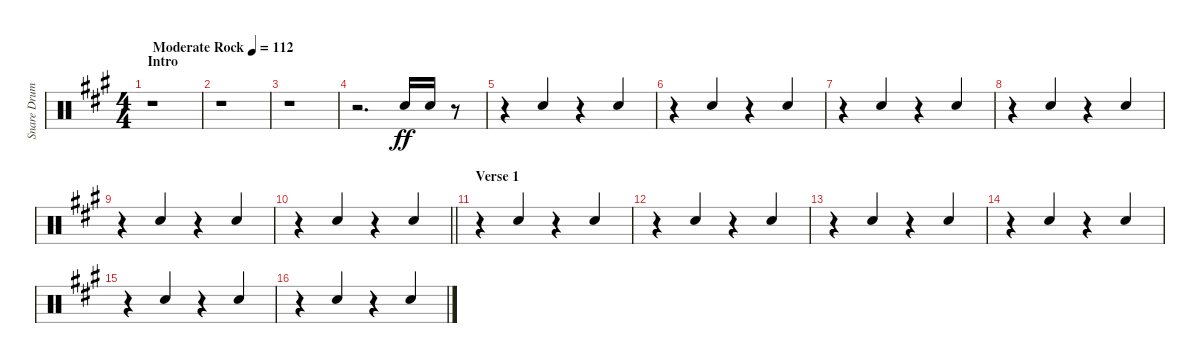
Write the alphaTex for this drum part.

\track ("Snare Drum" "Snare Drum") {instrument percussion}
\staff {score}
\articulation defaults
\ts (4 4)
\section ("" "Intro")
\tempo (112 "Moderate Rock")
\clef neutral
\ks f#minor
r.1{dy ff} |
r.1 |
r.1 |
r.2{d} "Electric Snare (hit)".16{beam Up} "Electric Snare (hit)".16{beam Up} r.8{beam Up} |
r.4 "Electric Snare (hit)".4{beam Up} r.4 "Electric Snare (hit)".4{beam Up} |
r.4 "Electric Snare (hit)".4{beam Up} r.4 "Electric Snare (hit)".4{beam Up} |
r.4 "Electric Snare (hit)".4{beam Up} r.4 "Electric Snare (hit)".4{beam Up} |
r.4 "Electric Snare (hit)".4{beam Up} r.4 "Electric Snare (hit)".4{beam Up} |
r.4 "Electric Snare (hit)".4{beam Up} r.4 "Electric Snare (hit)".4{beam Up} |
\barLineRight lightlight
r.4 "Electric Snare (hit)".4{beam Up} r.4 "Electric Snare (hit)".4{beam Up} |
\section ("" "Verse 1")
r.4 "Electric Snare (hit)".4{beam Up} r.4 "Electric Snare (hit)".4{beam Up} |
r.4 "Electric Snare (hit)".4{beam Up} r.4 "Electric Snare (hit)".4{beam Up} |
r.4 "Electric Snare (hit)".4{beam Up} r.4 "Electric Snare (hit)".4{beam Up} |
r.4 "Electric Snare (hit)".4{beam Up} r.4 "Electric Snare (hit)".4{beam Up} |
r.4 "Electric Snare (hit)".4{beam Up} r.4 "Electric Snare (hit)".4{beam Up} |
r.4 "Electric Snare (hit)".4{beam Up} r.4 "Electric Snare (hit)".4{beam Up}
